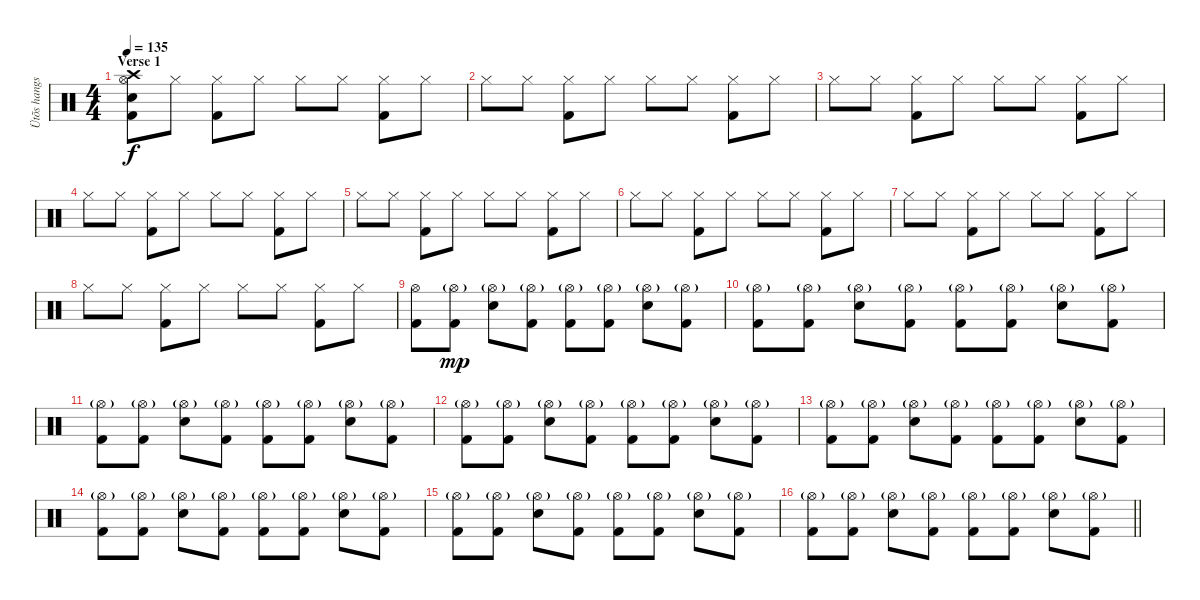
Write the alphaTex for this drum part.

\track ("Ütõs hangszer" "Ütõs hangs") {instrument percussion}
\staff {score}
\articulation defaults
\ts (4 4)
\section ("" "Verse 1")
\tempo 135
\clef neutral
\ks c
("Hi-Hat (open)" "Crash high (hit)" "Electric Snare (hit)" "Kick (hit) 2").8{dy f} "Hi-Hat (closed)".8 ("Hi-Hat (closed)" "Kick (hit) 2").8 "Hi-Hat (closed)".8 "Hi-Hat (closed)".8 "Hi-Hat (closed)".8 ("Hi-Hat (closed)" "Kick (hit) 2").8 "Hi-Hat (closed)".8 |
"Hi-Hat (closed)".8 "Hi-Hat (closed)".8 ("Hi-Hat (closed)" "Kick (hit) 2").8 "Hi-Hat (closed)".8 "Hi-Hat (closed)".8 "Hi-Hat (closed)".8 ("Hi-Hat (closed)" "Kick (hit) 2").8 "Hi-Hat (closed)".8 |
"Hi-Hat (closed)".8 "Hi-Hat (closed)".8 ("Hi-Hat (closed)" "Kick (hit) 2").8 "Hi-Hat (closed)".8 "Hi-Hat (closed)".8 "Hi-Hat (closed)".8 ("Hi-Hat (closed)" "Kick (hit) 2").8 "Hi-Hat (closed)".8 |
"Hi-Hat (closed)".8 "Hi-Hat (closed)".8 ("Hi-Hat (closed)" "Kick (hit) 2").8 "Hi-Hat (closed)".8 "Hi-Hat (closed)".8 "Hi-Hat (closed)".8 ("Hi-Hat (closed)" "Kick (hit) 2").8 "Hi-Hat (closed)".8 |
"Hi-Hat (closed)".8 "Hi-Hat (closed)".8 ("Hi-Hat (closed)" "Kick (hit) 2").8 "Hi-Hat (closed)".8 "Hi-Hat (closed)".8 "Hi-Hat (closed)".8 ("Hi-Hat (closed)" "Kick (hit) 2").8 "Hi-Hat (closed)".8 |
"Hi-Hat (closed)".8 "Hi-Hat (closed)".8 ("Hi-Hat (closed)" "Kick (hit) 2").8 "Hi-Hat (closed)".8 "Hi-Hat (closed)".8 "Hi-Hat (closed)".8 ("Hi-Hat (closed)" "Kick (hit) 2").8 "Hi-Hat (closed)".8 |
"Hi-Hat (closed)".8 "Hi-Hat (closed)".8 ("Hi-Hat (closed)" "Kick (hit) 2").8 "Hi-Hat (closed)".8 "Hi-Hat (closed)".8 "Hi-Hat (closed)".8 ("Hi-Hat (closed)" "Kick (hit) 2").8 "Hi-Hat (closed)".8 |
"Hi-Hat (closed)".8 "Hi-Hat (closed)".8 ("Hi-Hat (closed)" "Kick (hit) 2").8 "Hi-Hat (closed)".8 "Hi-Hat (closed)".8 "Hi-Hat (closed)".8 ("Hi-Hat (closed)" "Kick (hit) 2").8 "Hi-Hat (closed)".8 |
("Hi-Hat (open)" "Kick (hit) 2").8 ("Hi-Hat (open)"{g} "Kick (hit) 2").8{dy mp} ("Hi-Hat (open)"{g} "Electric Snare (hit)").8 ("Hi-Hat (open)"{g} "Kick (hit) 2").8 ("Hi-Hat (open)"{g} "Kick (hit) 2").8 ("Hi-Hat (open)"{g} "Kick (hit) 2").8 ("Hi-Hat (open)"{g} "Electric Snare (hit)").8 ("Hi-Hat (open)"{g} "Kick (hit) 2").8 |
("Hi-Hat (open)"{g} "Kick (hit) 2").8 ("Hi-Hat (open)"{g} "Kick (hit) 2").8 ("Hi-Hat (open)"{g} "Electric Snare (hit)").8 ("Hi-Hat (open)"{g} "Kick (hit) 2").8 ("Hi-Hat (open)"{g} "Kick (hit) 2").8 ("Hi-Hat (open)"{g} "Kick (hit) 2").8 ("Hi-Hat (open)"{g} "Electric Snare (hit)").8 ("Hi-Hat (open)"{g} "Kick (hit) 2").8 |
("Hi-Hat (open)"{g} "Kick (hit) 2").8 ("Hi-Hat (open)"{g} "Kick (hit) 2").8 ("Hi-Hat (open)"{g} "Electric Snare (hit)").8 ("Hi-Hat (open)"{g} "Kick (hit) 2").8 ("Hi-Hat (open)"{g} "Kick (hit) 2").8 ("Hi-Hat (open)"{g} "Kick (hit) 2").8 ("Hi-Hat (open)"{g} "Electric Snare (hit)").8 ("Hi-Hat (open)"{g} "Kick (hit) 2").8 |
("Hi-Hat (open)"{g} "Kick (hit) 2").8 ("Hi-Hat (open)"{g} "Kick (hit) 2").8 ("Hi-Hat (open)"{g} "Electric Snare (hit)").8 ("Hi-Hat (open)"{g} "Kick (hit) 2").8 ("Hi-Hat (open)"{g} "Kick (hit) 2").8 ("Hi-Hat (open)"{g} "Kick (hit) 2").8 ("Hi-Hat (open)"{g} "Electric Snare (hit)").8 ("Hi-Hat (open)"{g} "Kick (hit) 2").8 |
("Hi-Hat (open)"{g} "Kick (hit) 2").8 ("Hi-Hat (open)"{g} "Kick (hit) 2").8 ("Hi-Hat (open)"{g} "Electric Snare (hit)").8 ("Hi-Hat (open)"{g} "Kick (hit) 2").8 ("Hi-Hat (open)"{g} "Kick (hit) 2").8 ("Hi-Hat (open)"{g} "Kick (hit) 2").8 ("Hi-Hat (open)"{g} "Electric Snare (hit)").8 ("Hi-Hat (open)"{g} "Kick (hit) 2").8 |
("Hi-Hat (open)"{g} "Kick (hit) 2").8 ("Hi-Hat (open)"{g} "Kick (hit) 2").8 ("Hi-Hat (open)"{g} "Electric Snare (hit)").8 ("Hi-Hat (open)"{g} "Kick (hit) 2").8 ("Hi-Hat (open)"{g} "Kick (hit) 2").8 ("Hi-Hat (open)"{g} "Kick (hit) 2").8 ("Hi-Hat (open)"{g} "Electric Snare (hit)").8 ("Hi-Hat (open)"{g} "Kick (hit) 2").8 |
("Hi-Hat (open)"{g} "Kick (hit) 2").8 ("Hi-Hat (open)"{g} "Kick (hit) 2").8 ("Hi-Hat (open)"{g} "Electric Snare (hit)").8 ("Hi-Hat (open)"{g} "Kick (hit) 2").8 ("Hi-Hat (open)"{g} "Kick (hit) 2").8 ("Hi-Hat (open)"{g} "Kick (hit) 2").8 ("Hi-Hat (open)"{g} "Electric Snare (hit)").8 ("Hi-Hat (open)"{g} "Kick (hit) 2").8 |
\barLineRight lightlight
("Hi-Hat (open)"{g} "Kick (hit) 2").8 ("Hi-Hat (open)"{g} "Kick (hit) 2").8 ("Hi-Hat (open)"{g} "Electric Snare (hit)").8 ("Hi-Hat (open)"{g} "Kick (hit) 2").8 ("Hi-Hat (open)"{g} "Kick (hit) 2").8 ("Hi-Hat (open)"{g} "Kick (hit) 2").8 ("Hi-Hat (open)"{g} "Electric Snare (hit)").8 ("Hi-Hat (open)"{g} "Kick (hit) 2").8
